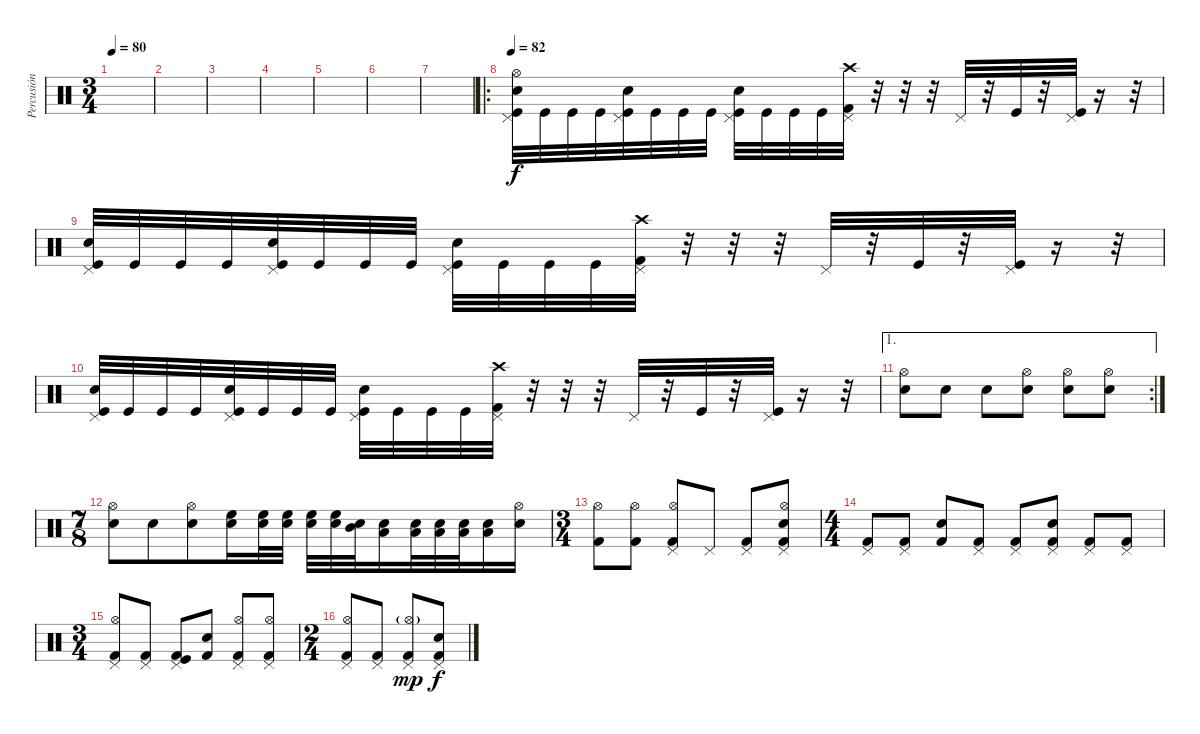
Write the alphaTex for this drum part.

\track ("Percusión" "Percusión") {instrument percussion}
\staff {score}
\articulation defaults
\ts (3 4)
\tempo 80
\clef neutral
\ks c
|
|
|
|
|
|
|
\ro
\tempo 82
("Kick (hit)" "Snare (hit) 2" "Pedal Hi-Hat (hit)" "Hi-Hat (open)").32 "Kick (hit)".32 "Kick (hit)".32 "Kick (hit)".32 ("Kick (hit)" "Snare (hit) 2" "Pedal Hi-Hat (hit)").32 "Kick (hit)".32 "Kick (hit)".32 "Kick (hit)".32 ("Kick (hit)" "Snare (hit) 2" "Pedal Hi-Hat (hit)").32 "Kick (hit)".32 "Kick (hit)".32 "Kick (hit)".32 ("Kick (hit) 2" "Crash high (hit)" "Pedal Hi-Hat (hit)").32 r.32 r.32 r.32 "Pedal Hi-Hat (hit)".32 r.32 "Kick (hit)".32 r.32 ("Kick (hit)" "Pedal Hi-Hat (hit)").32 r.16 r.32 |
("Kick (hit)" "Snare (hit) 2" "Pedal Hi-Hat (hit)").32 "Kick (hit)".32 "Kick (hit)".32 "Kick (hit)".32 ("Kick (hit)" "Snare (hit) 2" "Pedal Hi-Hat (hit)").32 "Kick (hit)".32 "Kick (hit)".32 "Kick (hit)".32 ("Kick (hit)" "Snare (hit) 2" "Pedal Hi-Hat (hit)").32 "Kick (hit)".32 "Kick (hit)".32 "Kick (hit)".32 ("Kick (hit) 2" "Crash high (hit)" "Pedal Hi-Hat (hit)").32 r.32 r.32 r.32 "Pedal Hi-Hat (hit)".32 r.32 "Kick (hit)".32 r.32 ("Kick (hit)" "Pedal Hi-Hat (hit)").32 r.16 r.32 |
("Kick (hit)" "Snare (hit) 2" "Pedal Hi-Hat (hit)").32 "Kick (hit)".32 "Kick (hit)".32 "Kick (hit)".32 ("Kick (hit)" "Snare (hit) 2" "Pedal Hi-Hat (hit)").32 "Kick (hit)".32 "Kick (hit)".32 "Kick (hit)".32 ("Kick (hit)" "Snare (hit) 2" "Pedal Hi-Hat (hit)").32 "Kick (hit)".32 "Kick (hit)".32 "Kick (hit)".32 ("Kick (hit) 2" "Crash high (hit)" "Pedal Hi-Hat (hit)").32 r.32 r.32 r.32 "Pedal Hi-Hat (hit)".32 r.32 "Kick (hit)".32 r.32 ("Kick (hit)" "Pedal Hi-Hat (hit)").32 r.16 r.32 |
\ae 1
\rc 2
("Snare (hit) 2" "Hi-Hat (open)").8 "Snare (hit) 2".8 "Snare (hit) 2".8 ("Snare (hit) 2" "Hi-Hat (open)").8 ("Snare (hit) 2" "Hi-Hat (open)").8 ("Snare (hit) 2" "Hi-Hat (open)").8 |
\ts (7 8)
("Snare (hit) 2" "Hi-Hat (open)").8 "Snare (hit) 2".8 ("Snare (hit) 2" "Hi-Hat (open)").8 ("High Floor Tom (hit)" "Snare (hit) 2").16 ("High Floor Tom (hit)" "Snare (hit) 2").32 ("High Floor Tom (hit)" "Snare (hit) 2").32 ("High Floor Tom (hit)" "Snare (hit) 2").32 ("High Floor Tom (hit)" "Snare (hit) 2").32 ("Mid Tom (hit)" "Snare (hit) 2").32 ("Low Tom (hit)" "Snare (hit) 2").16 ("Low Tom (hit)" "Snare (hit) 2").32 ("Low Tom (hit)" "Snare (hit) 2").32 ("Low Tom (hit)" "Snare (hit) 2").32 ("Low Tom (hit)" "Snare (hit) 2").16 ("Hi-Hat (open)" "Snare (hit) 2").16 |
\ts (3 4)
("Kick (hit) 2" "Hi-Hat (open)").8 ("Kick (hit) 2" "Hi-Hat (open)").8 ("Pedal Hi-Hat (hit)" "Kick (hit) 2" "Hi-Hat (open)").8 "Pedal Hi-Hat (hit)".8 ("Kick (hit) 2" "Pedal Hi-Hat (hit)").8 ("Kick (hit) 2" "Pedal Hi-Hat (hit)" "Hi-Hat (open)" "Snare (hit) 2").8 |
\ts (4 4)
("Pedal Hi-Hat (hit)" "Kick (hit) 2").8 ("Pedal Hi-Hat (hit)" "Kick (hit) 2").8 ("Electric Snare (hit)" "Kick (hit) 2").8 ("Pedal Hi-Hat (hit)" "Kick (hit) 2").8 ("Pedal Hi-Hat (hit)" "Kick (hit) 2").8 ("Pedal Hi-Hat (hit)" "Snare (hit) 2" "Kick (hit) 2").8 ("Pedal Hi-Hat (hit)" "Kick (hit) 2").8 ("Pedal Hi-Hat (hit)" "Kick (hit) 2").8 |
\ts (3 4)
("Pedal Hi-Hat (hit)" "Hi-Hat (open)" "Kick (hit) 2").8 ("Pedal Hi-Hat (hit)" "Kick (hit) 2").8 ("Pedal Hi-Hat (hit)" "Kick (hit)" "Kick (hit) 2").8 ("Electric Snare (hit)" "Kick (hit) 2").8 ("Pedal Hi-Hat (hit)" "Hi-Hat (open)" "Kick (hit) 2").8 ("Pedal Hi-Hat (hit)" "Hi-Hat (open)" "Kick (hit) 2").8 |
\ts (2 4)
("Pedal Hi-Hat (hit)" "Hi-Hat (open)" "Kick (hit) 2").8 ("Pedal Hi-Hat (hit)" "Kick (hit) 2").8 ("Pedal Hi-Hat (hit)" "Hi-Hat (open)"{g} "Kick (hit) 2").8{dy mp} ("Pedal Hi-Hat (hit)" "Snare (hit) 2" "Kick (hit) 2").8{dy f}
